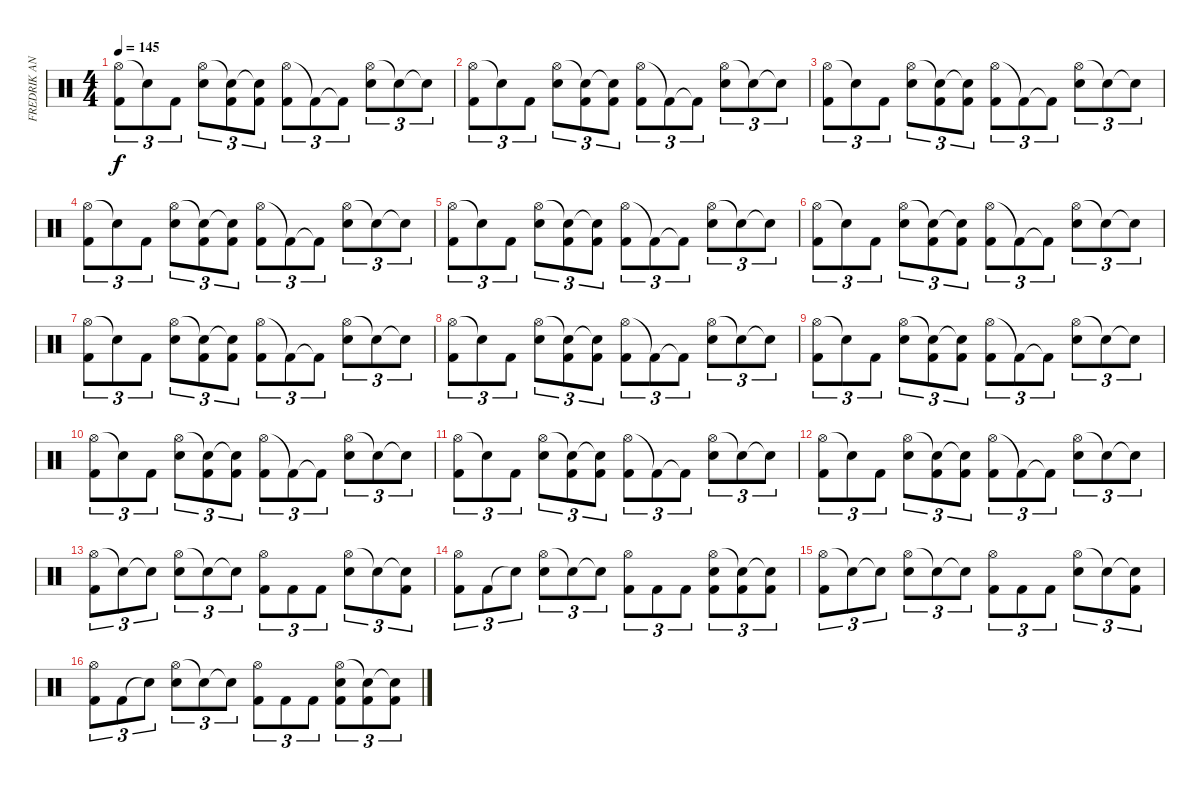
\track ("FREDRIK ANDERSSON" "FREDRIK AN") {instrument percussion}
\staff {score}
\articulation defaults
\ts (4 4)
\tempo 145
\clef neutral
\ks c
("Hi-Hat (open)" "Kick (hit) 2").8{tu (3 2) dy f} "Snare (hit)"{t}.8{tu (3 2)} "Kick (hit) 2".8{tu (3 2)} ("Hi-Hat (open)" "Snare (hit) 2").8{tu (3 2)} ("Snare (hit)"{t} "Kick (hit) 2").8{tu (3 2)} ("Snare (hit)"{t} "Kick (hit) 2").8{tu (3 2)} ("Hi-Hat (open)" "Kick (hit) 2").8{tu (3 2)} "Kick (hit) 2"{t}.8{tu (3 2)} "Kick (hit) 2"{t}.8{tu (3 2)} ("Hi-Hat (open)" "Snare (hit) 2").8{tu (3 2)} "Snare (hit)"{t}.8{tu (3 2)} "Snare (hit)"{t}.8{tu (3 2)} |
("Hi-Hat (open)" "Kick (hit) 2").8{tu (3 2)} "Snare (hit)"{t}.8{tu (3 2)} "Kick (hit) 2".8{tu (3 2)} ("Hi-Hat (open)" "Snare (hit) 2").8{tu (3 2)} ("Snare (hit)"{t} "Kick (hit) 2").8{tu (3 2)} ("Snare (hit)"{t} "Kick (hit) 2").8{tu (3 2)} ("Hi-Hat (open)" "Kick (hit) 2").8{tu (3 2)} "Kick (hit) 2"{t}.8{tu (3 2)} "Kick (hit) 2"{t}.8{tu (3 2)} ("Hi-Hat (open)" "Snare (hit) 2").8{tu (3 2)} "Snare (hit)"{t}.8{tu (3 2)} "Snare (hit)"{t}.8{tu (3 2)} |
("Hi-Hat (open)" "Kick (hit) 2").8{tu (3 2)} "Snare (hit)"{t}.8{tu (3 2)} "Kick (hit) 2".8{tu (3 2)} ("Hi-Hat (open)" "Snare (hit) 2").8{tu (3 2)} ("Snare (hit)"{t} "Kick (hit) 2").8{tu (3 2)} ("Snare (hit)"{t} "Kick (hit) 2").8{tu (3 2)} ("Hi-Hat (open)" "Kick (hit) 2").8{tu (3 2)} "Kick (hit) 2"{t}.8{tu (3 2)} "Kick (hit) 2"{t}.8{tu (3 2)} ("Hi-Hat (open)" "Snare (hit) 2").8{tu (3 2)} "Snare (hit)"{t}.8{tu (3 2)} "Snare (hit)"{t}.8{tu (3 2)} |
("Hi-Hat (open)" "Kick (hit) 2").8{tu (3 2)} "Snare (hit)"{t}.8{tu (3 2)} "Kick (hit) 2".8{tu (3 2)} ("Hi-Hat (open)" "Snare (hit) 2").8{tu (3 2)} ("Snare (hit)"{t} "Kick (hit) 2").8{tu (3 2)} ("Snare (hit)"{t} "Kick (hit) 2").8{tu (3 2)} ("Hi-Hat (open)" "Kick (hit) 2").8{tu (3 2)} "Kick (hit) 2"{t}.8{tu (3 2)} "Kick (hit) 2"{t}.8{tu (3 2)} ("Hi-Hat (open)" "Snare (hit) 2").8{tu (3 2)} "Snare (hit)"{t}.8{tu (3 2)} "Snare (hit)"{t}.8{tu (3 2)} |
("Hi-Hat (open)" "Kick (hit) 2").8{tu (3 2)} "Snare (hit)"{t}.8{tu (3 2)} "Kick (hit) 2".8{tu (3 2)} ("Hi-Hat (open)" "Snare (hit) 2").8{tu (3 2)} ("Snare (hit)"{t} "Kick (hit) 2").8{tu (3 2)} ("Snare (hit)"{t} "Kick (hit) 2").8{tu (3 2)} ("Hi-Hat (open)" "Kick (hit) 2").8{tu (3 2)} "Kick (hit) 2"{t}.8{tu (3 2)} "Kick (hit) 2"{t}.8{tu (3 2)} ("Hi-Hat (open)" "Snare (hit) 2").8{tu (3 2)} "Snare (hit)"{t}.8{tu (3 2)} "Snare (hit)"{t}.8{tu (3 2)} |
("Hi-Hat (open)" "Kick (hit) 2").8{tu (3 2)} "Snare (hit)"{t}.8{tu (3 2)} "Kick (hit) 2".8{tu (3 2)} ("Hi-Hat (open)" "Snare (hit) 2").8{tu (3 2)} ("Snare (hit)"{t} "Kick (hit) 2").8{tu (3 2)} ("Snare (hit)"{t} "Kick (hit) 2").8{tu (3 2)} ("Hi-Hat (open)" "Kick (hit) 2").8{tu (3 2)} "Kick (hit) 2"{t}.8{tu (3 2)} "Kick (hit) 2"{t}.8{tu (3 2)} ("Hi-Hat (open)" "Snare (hit) 2").8{tu (3 2)} "Snare (hit)"{t}.8{tu (3 2)} "Snare (hit)"{t}.8{tu (3 2)} |
("Hi-Hat (open)" "Kick (hit) 2").8{tu (3 2)} "Snare (hit)"{t}.8{tu (3 2)} "Kick (hit) 2".8{tu (3 2)} ("Hi-Hat (open)" "Snare (hit) 2").8{tu (3 2)} ("Snare (hit)"{t} "Kick (hit) 2").8{tu (3 2)} ("Snare (hit)"{t} "Kick (hit) 2").8{tu (3 2)} ("Hi-Hat (open)" "Kick (hit) 2").8{tu (3 2)} "Kick (hit) 2"{t}.8{tu (3 2)} "Kick (hit) 2"{t}.8{tu (3 2)} ("Hi-Hat (open)" "Snare (hit) 2").8{tu (3 2)} "Snare (hit)"{t}.8{tu (3 2)} "Snare (hit)"{t}.8{tu (3 2)} |
("Hi-Hat (open)" "Kick (hit) 2").8{tu (3 2)} "Snare (hit)"{t}.8{tu (3 2)} "Kick (hit) 2".8{tu (3 2)} ("Hi-Hat (open)" "Snare (hit) 2").8{tu (3 2)} ("Snare (hit)"{t} "Kick (hit) 2").8{tu (3 2)} ("Snare (hit)"{t} "Kick (hit) 2").8{tu (3 2)} ("Hi-Hat (open)" "Kick (hit) 2").8{tu (3 2)} "Kick (hit) 2"{t}.8{tu (3 2)} "Kick (hit) 2"{t}.8{tu (3 2)} ("Hi-Hat (open)" "Snare (hit) 2").8{tu (3 2)} "Snare (hit)"{t}.8{tu (3 2)} "Snare (hit)"{t}.8{tu (3 2)} |
("Hi-Hat (open)" "Kick (hit) 2").8{tu (3 2)} "Snare (hit)"{t}.8{tu (3 2)} "Kick (hit) 2".8{tu (3 2)} ("Hi-Hat (open)" "Snare (hit) 2").8{tu (3 2)} ("Snare (hit)"{t} "Kick (hit) 2").8{tu (3 2)} ("Snare (hit)"{t} "Kick (hit) 2").8{tu (3 2)} ("Hi-Hat (open)" "Kick (hit) 2").8{tu (3 2)} "Kick (hit) 2"{t}.8{tu (3 2)} "Kick (hit) 2"{t}.8{tu (3 2)} ("Hi-Hat (open)" "Snare (hit) 2").8{tu (3 2)} "Snare (hit)"{t}.8{tu (3 2)} "Snare (hit)"{t}.8{tu (3 2)} |
("Hi-Hat (open)" "Kick (hit) 2").8{tu (3 2)} "Snare (hit)"{t}.8{tu (3 2)} "Kick (hit) 2".8{tu (3 2)} ("Hi-Hat (open)" "Snare (hit) 2").8{tu (3 2)} ("Snare (hit)"{t} "Kick (hit) 2").8{tu (3 2)} ("Snare (hit)"{t} "Kick (hit) 2").8{tu (3 2)} ("Hi-Hat (open)" "Kick (hit) 2").8{tu (3 2)} "Kick (hit) 2"{t}.8{tu (3 2)} "Kick (hit) 2"{t}.8{tu (3 2)} ("Hi-Hat (open)" "Snare (hit) 2").8{tu (3 2)} "Snare (hit)"{t}.8{tu (3 2)} "Snare (hit)"{t}.8{tu (3 2)} |
("Hi-Hat (open)" "Kick (hit) 2").8{tu (3 2)} "Snare (hit)"{t}.8{tu (3 2)} "Kick (hit) 2".8{tu (3 2)} ("Hi-Hat (open)" "Snare (hit) 2").8{tu (3 2)} ("Snare (hit)"{t} "Kick (hit) 2").8{tu (3 2)} ("Snare (hit)"{t} "Kick (hit) 2").8{tu (3 2)} ("Hi-Hat (open)" "Kick (hit) 2").8{tu (3 2)} "Kick (hit) 2"{t}.8{tu (3 2)} "Kick (hit) 2"{t}.8{tu (3 2)} ("Hi-Hat (open)" "Snare (hit) 2").8{tu (3 2)} "Snare (hit)"{t}.8{tu (3 2)} "Snare (hit)"{t}.8{tu (3 2)} |
("Hi-Hat (open)" "Kick (hit) 2").8{tu (3 2)} "Snare (hit)"{t}.8{tu (3 2)} "Kick (hit) 2".8{tu (3 2)} ("Hi-Hat (open)" "Snare (hit) 2").8{tu (3 2)} ("Snare (hit)"{t} "Kick (hit) 2").8{tu (3 2)} ("Snare (hit)"{t} "Kick (hit) 2").8{tu (3 2)} ("Hi-Hat (open)" "Kick (hit) 2").8{tu (3 2)} "Kick (hit) 2"{t}.8{tu (3 2)} "Kick (hit) 2"{t}.8{tu (3 2)} ("Hi-Hat (open)" "Snare (hit) 2").8{tu (3 2)} "Snare (hit)"{t}.8{tu (3 2)} "Snare (hit)"{t}.8{tu (3 2)} |
("Hi-Hat (open)" "Kick (hit) 2").8{tu (3 2)} "Snare (hit)"{t}.8{tu (3 2)} "Snare (hit)"{t}.8{tu (3 2)} ("Hi-Hat (open)" "Snare (hit) 2").8{tu (3 2)} "Snare (hit)"{t}.8{tu (3 2)} "Snare (hit)"{t}.8{tu (3 2)} ("Hi-Hat (open)" "Kick (hit) 2").8{tu (3 2)} "Kick (hit) 2".8{tu (3 2)} "Kick (hit) 2".8{tu (3 2)} ("Hi-Hat (open)" "Snare (hit) 2").8{tu (3 2)} "Snare (hit)"{t}.8{tu (3 2)} ("Snare (hit)"{t} "Kick (hit) 2").8{tu (3 2)} |
("Hi-Hat (open)" "Kick (hit) 2").8{tu (3 2)} "Kick (hit) 2".8{tu (3 2)} "Snare (hit)"{t}.8{tu (3 2)} ("Hi-Hat (open)" "Snare (hit) 2").8{tu (3 2)} "Snare (hit)"{t}.8{tu (3 2)} "Snare (hit)"{t}.8{tu (3 2)} ("Hi-Hat (open)" "Kick (hit) 2").8{tu (3 2)} "Kick (hit) 2".8{tu (3 2)} "Kick (hit) 2".8{tu (3 2)} ("Hi-Hat (open)" "Snare (hit) 2" "Kick (hit) 2").8{tu (3 2)} ("Snare (hit)"{t} "Kick (hit) 2").8{tu (3 2)} ("Snare (hit)"{t} "Kick (hit) 2").8{tu (3 2)} |
("Hi-Hat (open)" "Kick (hit) 2").8{tu (3 2)} "Snare (hit)"{t}.8{tu (3 2)} "Snare (hit)"{t}.8{tu (3 2)} ("Hi-Hat (open)" "Snare (hit) 2").8{tu (3 2)} "Snare (hit)"{t}.8{tu (3 2)} "Snare (hit)"{t}.8{tu (3 2)} ("Hi-Hat (open)" "Kick (hit) 2").8{tu (3 2)} "Kick (hit) 2".8{tu (3 2)} "Kick (hit) 2".8{tu (3 2)} ("Hi-Hat (open)" "Snare (hit) 2").8{tu (3 2)} "Snare (hit)"{t}.8{tu (3 2)} ("Snare (hit)"{t} "Kick (hit) 2").8{tu (3 2)} |
("Hi-Hat (open)" "Kick (hit) 2").8{tu (3 2)} "Kick (hit) 2".8{tu (3 2)} "Snare (hit)"{t}.8{tu (3 2)} ("Hi-Hat (open)" "Snare (hit) 2").8{tu (3 2)} "Snare (hit)"{t}.8{tu (3 2)} "Snare (hit)"{t}.8{tu (3 2)} ("Hi-Hat (open)" "Kick (hit) 2").8{tu (3 2)} "Kick (hit) 2".8{tu (3 2)} "Kick (hit) 2".8{tu (3 2)} ("Hi-Hat (open)" "Snare (hit) 2" "Kick (hit) 2").8{tu (3 2)} ("Snare (hit)"{t} "Kick (hit) 2").8{tu (3 2)} ("Snare (hit)"{t} "Kick (hit) 2").8{tu (3 2)}
